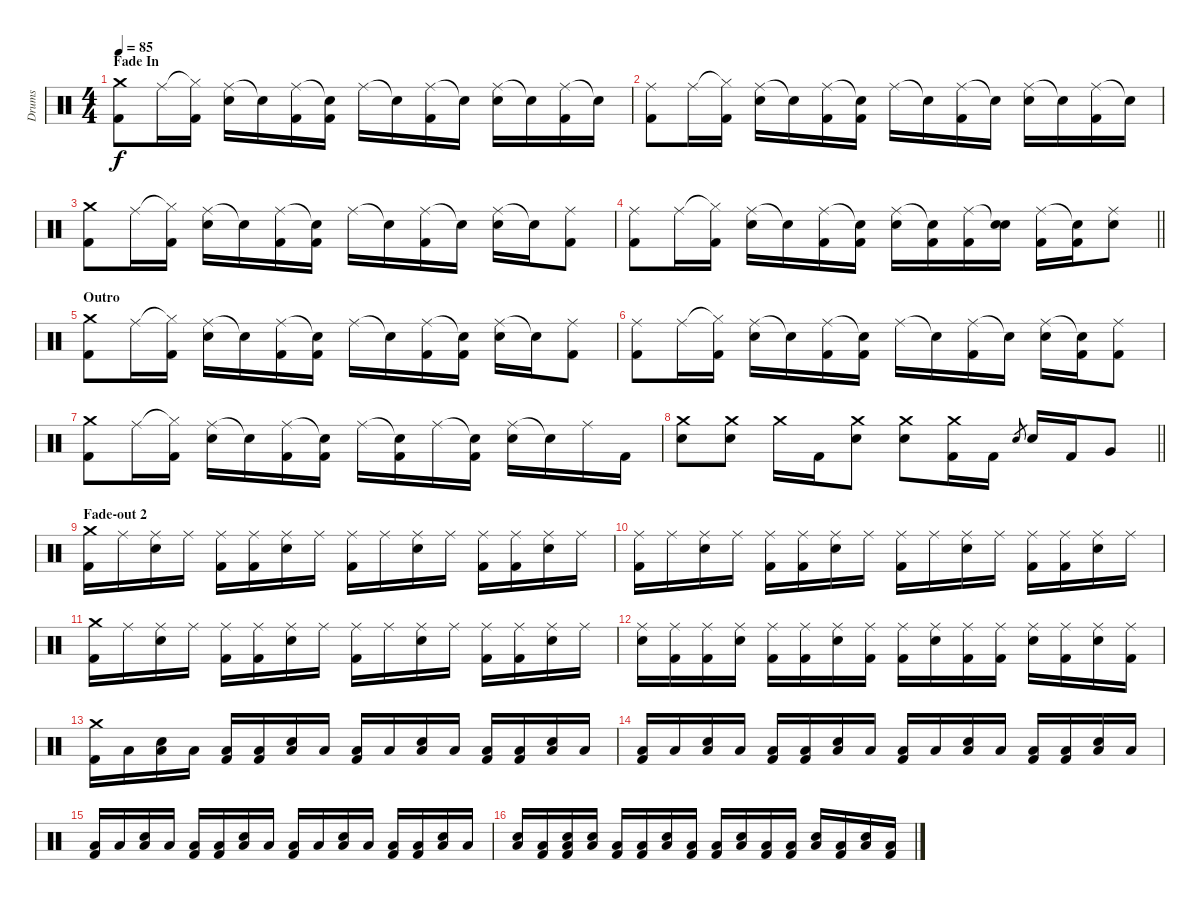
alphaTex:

\track ("Drums" "Drums") {instrument percussion}
\staff {score}
\articulation defaults
\ts (4 4)
\section ("" "Fade In")
\tempo 85
\clef neutral
\ks c
("Crash medium (hit)" "Kick (hit) 2").8{dy f} "Ride (middle)".16 ("Hi-Hat (closed)"{t} "Kick (hit) 2").16 ("Ride (middle)" "Electric Snare (hit)").16 "Snare (hit)"{t}.16 ("Ride (middle)" "Kick (hit) 2").16 ("Snare (hit)"{t} "Kick (hit) 2").16 "Ride (middle)".16 "Snare (hit)"{t}.16 ("Ride (middle)" "Kick (hit) 2").16 "Snare (hit)"{t}.16 ("Ride (middle)" "Electric Snare (hit)").16 "Snare (hit)"{t}.16 ("Ride (middle)" "Kick (hit) 2").16 "Snare (hit)"{t}.16 |
("Ride (middle)" "Kick (hit) 2").8{volume 1} "Ride (middle)".16 ("Hi-Hat (closed)"{t} "Kick (hit) 2").16 ("Ride (middle)" "Electric Snare (hit)").16 "Snare (hit)"{t}.16 ("Ride (middle)" "Kick (hit) 2").16 ("Snare (hit)"{t} "Kick (hit) 2").16 "Ride (middle)".16 "Snare (hit)"{t}.16 ("Ride (middle)" "Kick (hit) 2").16 "Snare (hit)"{t}.16 ("Ride (middle)" "Electric Snare (hit)").16 "Snare (hit)"{t}.16 ("Ride (middle)" "Kick (hit) 2").16 "Snare (hit)"{t}.16 |
("Crash medium (hit)" "Kick (hit) 2").8{volume 16} "Ride (middle)".16 ("Hi-Hat (closed)"{t} "Kick (hit) 2").16 ("Ride (middle)" "Electric Snare (hit)").16 "Snare (hit)"{t}.16 ("Ride (middle)" "Kick (hit) 2").16 ("Snare (hit)"{t} "Kick (hit) 2").16 "Ride (middle)".16 "Snare (hit)"{t}.16 ("Ride (middle)" "Kick (hit) 2").16 "Snare (hit)"{t}.16 ("Ride (middle)" "Electric Snare (hit)").16 "Snare (hit)"{t}.16 ("Ride (middle)" "Kick (hit) 2").8 |
\barLineRight lightlight
("Ride (middle)" "Kick (hit) 2").8 "Ride (middle)".16 ("Hi-Hat (closed)"{t} "Kick (hit) 2").16 ("Ride (middle)" "Electric Snare (hit)").16 "Snare (hit)"{t}.16 ("Ride (middle)" "Kick (hit) 2").16 ("Snare (hit)"{t} "Kick (hit) 2").16 ("Ride (middle)" "Electric Snare (hit)").16 ("Snare (hit)"{t} "Kick (hit) 2").16 ("Ride (middle)" "Kick (hit) 2").16 ("Snare (hit)"{t} "Electric Snare (hit)").16 ("Ride (middle)" "Kick (hit) 2").16 ("Snare (hit)"{t} "Kick (hit) 2").16 ("Ride (middle)" "Electric Snare (hit)").8 |
\section ("" "Outro")
("Crash medium (hit)" "Kick (hit) 2").8 "Ride (middle)".16 ("Hi-Hat (closed)"{t} "Kick (hit) 2").16 ("Ride (middle)" "Electric Snare (hit)").16 "Snare (hit)"{t}.16 ("Ride (middle)" "Kick (hit) 2").16 ("Snare (hit)"{t} "Kick (hit) 2").16 "Ride (middle)".16 "Snare (hit)"{t}.16 ("Ride (middle)" "Kick (hit) 2").16 ("Snare (hit)"{t} "Kick (hit) 2").16 ("Ride (middle)" "Electric Snare (hit)").16 "Snare (hit)"{t}.16 ("Ride (middle)" "Kick (hit) 2").8 |
("Ride (middle)" "Kick (hit) 2").8 "Ride (middle)".16 ("Hi-Hat (closed)"{t} "Kick (hit) 2").16 ("Ride (middle)" "Electric Snare (hit)").16 "Snare (hit)"{t}.16 ("Ride (middle)" "Kick (hit) 2").16 ("Snare (hit)"{t} "Kick (hit) 2").16 "Ride (middle)".16 "Snare (hit)"{t}.16 ("Ride (middle)" "Kick (hit) 2").16 "Snare (hit)"{t}.16 ("Ride (middle)" "Electric Snare (hit)").16 ("Snare (hit)"{t} "Kick (hit) 2").16 ("Ride (middle)" "Kick (hit) 2").8 |
("Crash medium (hit)" "Kick (hit) 2").8 "Ride (middle)".16 ("Hi-Hat (closed)"{t} "Kick (hit) 2").16 ("Ride (middle)" "Electric Snare (hit)").16 "Snare (hit)"{t}.16 ("Ride (middle)" "Kick (hit) 2").16 ("Snare (hit)"{t} "Kick (hit) 2").16 "Ride (middle)".16 ("Snare (hit)"{t} "Kick (hit) 2").16 "Ride (middle)".16 ("Snare (hit)"{t} "Kick (hit) 2").16 ("Ride (middle)" "Electric Snare (hit)").16 "Snare (hit)"{t}.16 "Ride (middle)".16 "Kick (hit) 2".16 |
\barLineRight lightlight
("Crash medium (hit)" "Electric Snare (hit)").8 ("Crash medium (hit)" "Electric Snare (hit)").8 "Crash medium (hit)".16 "Kick (hit) 2".16 ("Crash medium (hit)" "Electric Snare (hit)").8 ("Crash medium (hit)" "Electric Snare (hit)").8 ("Crash medium (hit)" "Kick (hit) 2").16 "Kick (hit) 2".16 "Electric Snare (hit)".8{gr} "Electric Snare (hit)".16 "Kick (hit) 2".16 "Very Low Tom (hit)".8 |
\section ("" "Fade-out 2")
("Crash medium (hit)" "Kick (hit) 2").16 "Ride (middle)".16 ("Ride (middle)" "Electric Snare (hit)").16 "Ride (middle)".16 ("Ride (middle)" "Kick (hit) 2").16 ("Ride (middle)" "Kick (hit) 2").16 ("Ride (middle)" "Electric Snare (hit)").16 "Ride (middle)".16 ("Ride (middle)" "Kick (hit) 2").16 "Ride (middle)".16 ("Ride (middle)" "Electric Snare (hit)").16 "Ride (middle)".16 ("Ride (middle)" "Kick (hit) 2").16 ("Ride (middle)" "Kick (hit) 2").16 ("Ride (middle)" "Electric Snare (hit)").16 "Ride (middle)".16 |
("Ride (middle)" "Kick (hit) 2").16 "Ride (middle)".16 ("Ride (middle)" "Electric Snare (hit)").16 "Ride (middle)".16 ("Ride (middle)" "Kick (hit) 2").16 ("Ride (middle)" "Kick (hit) 2").16 ("Ride (middle)" "Electric Snare (hit)").16 "Ride (middle)".16 ("Ride (middle)" "Kick (hit) 2").16 "Ride (middle)".16 ("Ride (middle)" "Electric Snare (hit)").16 "Ride (middle)".16 ("Ride (middle)" "Kick (hit) 2").16 ("Ride (middle)" "Kick (hit) 2").16 ("Ride (middle)" "Electric Snare (hit)").16 "Ride (middle)".16 |
("Crash medium (hit)" "Kick (hit) 2").16 "Ride (middle)".16 ("Ride (middle)" "Electric Snare (hit)").16 "Ride (middle)".16 ("Ride (middle)" "Kick (hit) 2").16 ("Ride (middle)" "Kick (hit) 2").16 ("Ride (middle)" "Electric Snare (hit)").16 "Ride (middle)".16 ("Ride (middle)" "Kick (hit) 2").16 "Ride (middle)".16 ("Ride (middle)" "Electric Snare (hit)").16 "Ride (middle)".16 ("Ride (middle)" "Kick (hit) 2").16 ("Ride (middle)" "Kick (hit) 2").16 ("Ride (middle)" "Electric Snare (hit)").16 "Ride (middle)".16 |
("Ride (middle)" "Electric Snare (hit)").16 ("Ride (middle)" "Kick (hit) 2").16 ("Ride (middle)" "Kick (hit) 2").16 ("Ride (middle)" "Electric Snare (hit)").16 ("Ride (middle)" "Kick (hit) 2").16 ("Ride (middle)" "Kick (hit) 2").16 ("Ride (middle)" "Electric Snare (hit)").16 ("Ride (middle)" "Kick (hit) 2").16 ("Ride (middle)" "Kick (hit) 2").16 ("Ride (middle)" "Electric Snare (hit)").16 ("Ride (middle)" "Kick (hit) 2").16 ("Ride (middle)" "Kick (hit) 2").16 ("Ride (middle)" "Electric Snare (hit)").16 ("Ride (middle)" "Kick (hit) 2").16 ("Ride (middle)" "Electric Snare (hit)").16 ("Ride (middle)" "Kick (hit) 2").16 |
("Crash medium (hit)" "Kick (hit) 2").16 "Low Floor Tom (hit)".16 ("Low Floor Tom (hit)" "Electric Snare (hit)").16 "Low Floor Tom (hit)".16 ("Low Floor Tom (hit)" "Kick (hit) 2").16 ("Low Floor Tom (hit)" "Kick (hit) 2").16 ("Low Floor Tom (hit)" "Electric Snare (hit)").16 "Low Floor Tom (hit)".16 ("Low Floor Tom (hit)" "Kick (hit) 2").16 "Low Floor Tom (hit)".16 ("Low Floor Tom (hit)" "Electric Snare (hit)").16 "Low Floor Tom (hit)".16 ("Low Floor Tom (hit)" "Kick (hit) 2").16 ("Low Floor Tom (hit)" "Kick (hit) 2").16 ("Low Floor Tom (hit)" "Electric Snare (hit)").16 "Low Floor Tom (hit)".16 |
("Low Floor Tom (hit)" "Kick (hit) 2").16 "Low Floor Tom (hit)".16 ("Low Floor Tom (hit)" "Electric Snare (hit)").16 "Low Floor Tom (hit)".16 ("Low Floor Tom (hit)" "Kick (hit) 2").16 ("Low Floor Tom (hit)" "Kick (hit) 2").16 ("Low Floor Tom (hit)" "Electric Snare (hit)").16 "Low Floor Tom (hit)".16 ("Low Floor Tom (hit)" "Kick (hit) 2").16 "Low Floor Tom (hit)".16 ("Low Floor Tom (hit)" "Electric Snare (hit)").16 "Low Floor Tom (hit)".16 ("Low Floor Tom (hit)" "Kick (hit) 2").16 ("Low Floor Tom (hit)" "Kick (hit) 2").16 ("Low Floor Tom (hit)" "Electric Snare (hit)").16 "Low Floor Tom (hit)".16 |
("Low Floor Tom (hit)" "Kick (hit) 2").16 "Low Floor Tom (hit)".16 ("Low Floor Tom (hit)" "Electric Snare (hit)").16 "Low Floor Tom (hit)".16 ("Low Floor Tom (hit)" "Kick (hit) 2").16 ("Low Floor Tom (hit)" "Kick (hit) 2").16 ("Low Floor Tom (hit)" "Electric Snare (hit)").16 "Low Floor Tom (hit)".16 ("Low Floor Tom (hit)" "Kick (hit) 2").16 "Low Floor Tom (hit)".16 ("Low Floor Tom (hit)" "Electric Snare (hit)").16 "Low Floor Tom (hit)".16 ("Low Floor Tom (hit)" "Kick (hit) 2").16 ("Low Floor Tom (hit)" "Kick (hit) 2").16 ("Low Floor Tom (hit)" "Electric Snare (hit)").16 "Low Floor Tom (hit)".16 |
("Low Floor Tom (hit)" "Electric Snare (hit)").16 ("Low Floor Tom (hit)" "Kick (hit) 2").16 ("Low Floor Tom (hit)" "Electric Snare (hit)" "Kick (hit) 2").16 ("Low Floor Tom (hit)" "Electric Snare (hit)").16 ("Low Floor Tom (hit)" "Kick (hit) 2").16 ("Low Floor Tom (hit)" "Kick (hit) 2").16 ("Low Floor Tom (hit)" "Electric Snare (hit)").16 ("Low Floor Tom (hit)" "Kick (hit) 2").16 ("Low Floor Tom (hit)" "Kick (hit) 2").16 ("Low Floor Tom (hit)" "Electric Snare (hit)").16 ("Low Floor Tom (hit)" "Kick (hit) 2").16 ("Low Floor Tom (hit)" "Kick (hit) 2").16 ("Low Floor Tom (hit)" "Electric Snare (hit)").16 ("Low Floor Tom (hit)" "Kick (hit) 2").16 ("Low Floor Tom (hit)" "Electric Snare (hit)").16 ("Low Floor Tom (hit)" "Kick (hit) 2").16
